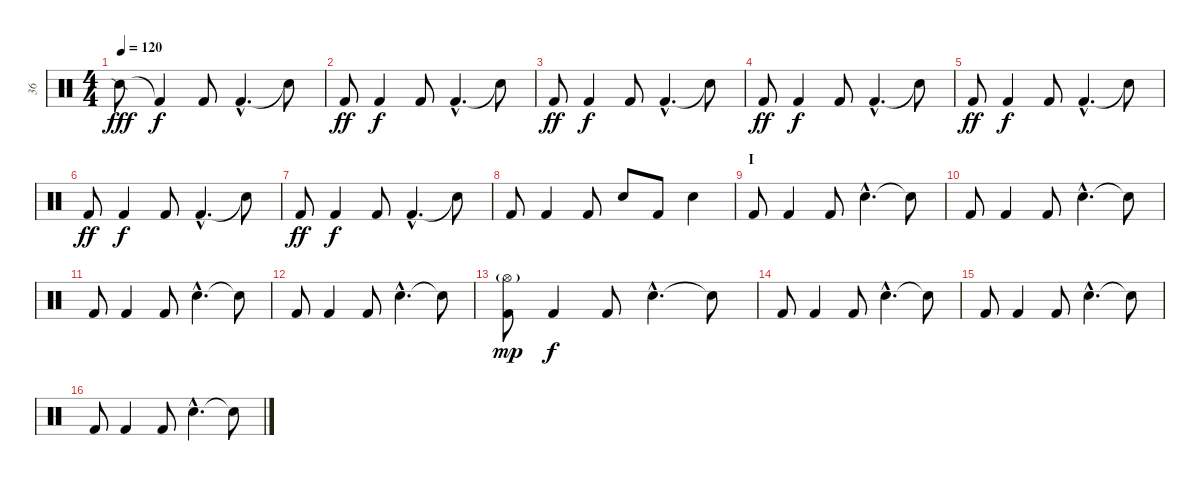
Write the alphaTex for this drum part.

\track ("36" "36") {instrument percussion}
\staff {score}
\articulation defaults
\ts (4 4)
\tempo 120
\clef neutral
\ks c "Snare (side stick) 2".8{dy fff} "Kick (hit) 2"{t}.4{dy f} "Kick (hit) 2".8 "Kick (hit) 2"{hac}.4{d} "Snare (hit)"{t}.8
|
"Kick (hit) 2".8{dy ff} "Kick (hit) 2".4{dy f} "Kick (hit) 2".8 "Kick (hit) 2"{hac}.4{d} "Snare (hit)"{t}.8 |
"Kick (hit) 2".8{dy ff} "Kick (hit) 2".4{dy f} "Kick (hit) 2".8 "Kick (hit) 2"{hac}.4{d} "Snare (hit)"{t}.8 |
"Kick (hit) 2".8{dy ff} "Kick (hit) 2".4{dy f} "Kick (hit) 2".8 "Kick (hit) 2"{hac}.4{d} "Snare (hit)"{t}.8 |
"Kick (hit) 2".8{dy ff} "Kick (hit) 2".4{dy f} "Kick (hit) 2".8 "Kick (hit) 2"{hac}.4{d} "Snare (hit)"{t}.8 |
"Kick (hit) 2".8{dy ff} "Kick (hit) 2".4{dy f} "Kick (hit) 2".8 "Kick (hit) 2"{hac}.4{d} "Snare (hit)"{t}.8 |
"Kick (hit) 2".8{dy ff} "Kick (hit) 2".4{dy f} "Kick (hit) 2".8 "Kick (hit) 2"{hac}.4{d} "Snare (hit)"{t}.8 |
"Kick (hit) 2".8 "Kick (hit) 2".4 "Kick (hit) 2".8 "Electric Snare (hit)".8 "Kick (hit) 2".8 "Electric Snare (hit)".4 |
\section ("" "I")
"Kick (hit) 2".8 "Kick (hit) 2".4 "Kick (hit) 2".8 "Electric Snare (hit)"{hac}.4{d} "Snare (hit)"{t}.8 |
"Kick (hit) 2".8 "Kick (hit) 2".4 "Kick (hit) 2".8 "Electric Snare (hit)"{hac}.4{d} "Snare (hit)"{t}.8 |
"Kick (hit) 2".8 "Kick (hit) 2".4 "Kick (hit) 2".8 "Electric Snare (hit)"{hac}.4{d} "Snare (hit)"{t}.8 |
"Kick (hit) 2".8 "Kick (hit) 2".4 "Kick (hit) 2".8 "Electric Snare (hit)"{hac}.4{d} "Snare (hit)"{t}.8 |
("Kick (hit) 2" "Hi-Hat (open)"{g}).8{dy mp} "Kick (hit) 2".4{dy f} "Kick (hit) 2".8 "Electric Snare (hit)"{hac}.4{d} "Snare (hit)"{t}.8 |
"Kick (hit) 2".8 "Kick (hit) 2".4 "Kick (hit) 2".8 "Electric Snare (hit)"{hac}.4{d} "Snare (hit)"{t}.8 |
"Kick (hit) 2".8 "Kick (hit) 2".4 "Kick (hit) 2".8 "Electric Snare (hit)"{hac}.4{d} "Snare (hit)"{t}.8 |
"Kick (hit) 2".8 "Kick (hit) 2".4 "Kick (hit) 2".8 "Electric Snare (hit)"{hac}.4{d} "Snare (hit)"{t}.8
